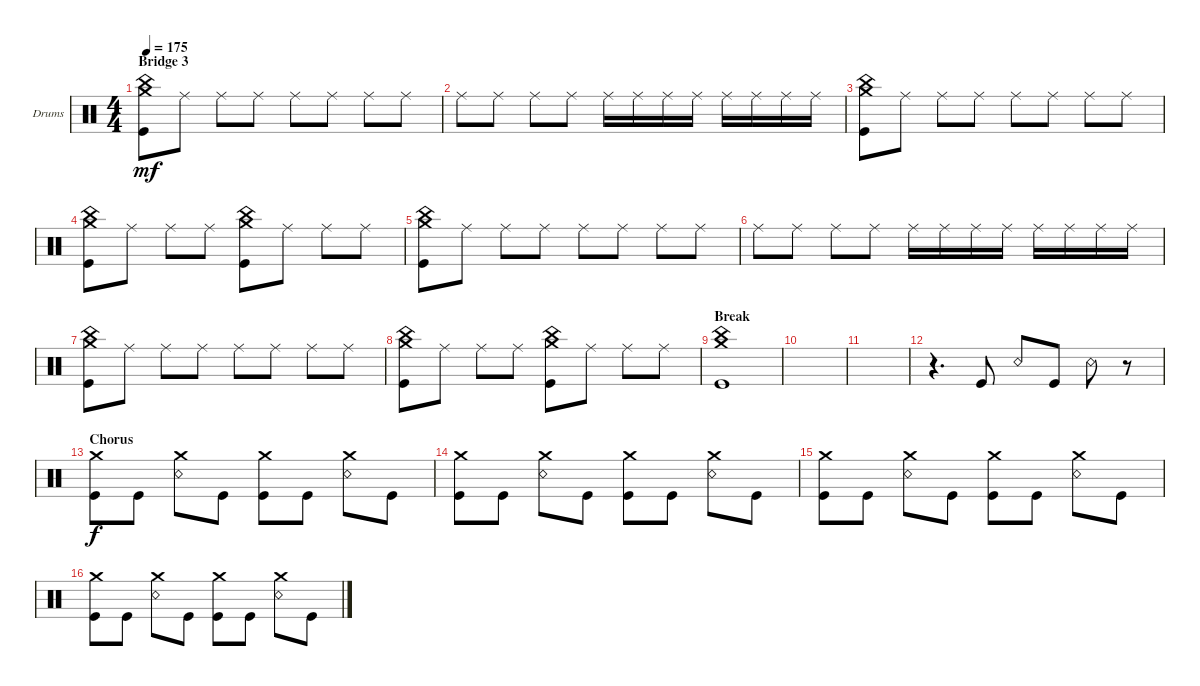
\bracketExtendMode groupsimilarinstruments
\firstSystemTrackNameOrientation horizontal
\otherSystemsTrackNameOrientation horizontal
\track ("Kanky Lora" "Drums") {instrument percussion}
\staff {score}
\articulation defaults
\ts (4 4)
\section ("" "Bridge 3")
\tempo 175
\clef neutral
\ks c
("Kick (hit)" "China (hit)" "Crash medium (hit)").8{dy mf} "Ride (middle)".8 "Ride (middle)".8 "Ride (middle)".8 "Ride (middle)".8 "Ride (middle)".8 "Ride (middle)".8 "Ride (middle)".8 |
"Ride (middle)".8 "Ride (middle)".8 "Ride (middle)".8 "Ride (middle)".8 "Ride (middle)".16 "Ride (middle)".16 "Ride (middle)".16 "Ride (middle)".16 "Ride (middle)".16 "Ride (middle)".16 "Ride (middle)".16 "Ride (middle)".16 |
("Kick (hit)" "China (hit)" "Crash medium (hit)").8 "Ride (middle)".8 "Ride (middle)".8 "Ride (middle)".8 "Ride (middle)".8 "Ride (middle)".8 "Ride (middle)".8 "Ride (middle)".8 |
("Kick (hit)" "China (hit)" "Crash medium (hit)").8 "Ride (middle)".8 "Ride (middle)".8 "Ride (middle)".8 ("Kick (hit)" "Crash medium (hit)" "China (hit)").8 "Ride (middle)".8 "Ride (middle)".8 "Ride (middle)".8 |
("Kick (hit)" "China (hit)" "Crash medium (hit)").8 "Ride (middle)".8 "Ride (middle)".8 "Ride (middle)".8 "Ride (middle)".8 "Ride (middle)".8 "Ride (middle)".8 "Ride (middle)".8 |
"Ride (middle)".8 "Ride (middle)".8 "Ride (middle)".8 "Ride (middle)".8 "Ride (middle)".16 "Ride (middle)".16 "Ride (middle)".16 "Ride (middle)".16 "Ride (middle)".16 "Ride (middle)".16 "Ride (middle)".16 "Ride (middle)".16 |
("Kick (hit)" "China (hit)" "Crash medium (hit)").8 "Ride (middle)".8 "Ride (middle)".8 "Ride (middle)".8 "Ride (middle)".8 "Ride (middle)".8 "Ride (middle)".8 "Ride (middle)".8 |
("Kick (hit)" "China (hit)" "Crash medium (hit)").8 "Ride (middle)".8 "Ride (middle)".8 "Ride (middle)".8 ("Kick (hit)" "Crash medium (hit)" "China (hit)").8 "Ride (middle)".8 "Ride (middle)".8 "Ride (middle)".8 |
\section ("" "Break")
("Kick (hit)" "China (hit)" "Crash medium (hit)").1 |
|
|
r.4{d} "Kick (hit)".8 "Snare (rim shot)".8 "Kick (hit)".8 "Snare (rim shot)".8 r.8 |
\section ("" "Chorus")
("Kick (hit)" "Crash medium (hit)").8{dy f} "Kick (hit)".8 ("Snare (rim shot)" "Crash medium (hit)").8 "Kick (hit)".8 ("Kick (hit)" "Crash medium (hit)").8 "Kick (hit)".8 ("Snare (rim shot)" "Crash medium (hit)").8 "Kick (hit)".8 |
("Kick (hit)" "Crash medium (hit)").8 "Kick (hit)".8 ("Snare (rim shot)" "Crash medium (hit)").8 "Kick (hit)".8 ("Kick (hit)" "Crash medium (hit)").8 "Kick (hit)".8 ("Snare (rim shot)" "Crash medium (hit)").8 "Kick (hit)".8 |
("Kick (hit)" "Crash medium (hit)").8 "Kick (hit)".8 ("Snare (rim shot)" "Crash medium (hit)").8 "Kick (hit)".8 ("Kick (hit)" "Crash medium (hit)").8 "Kick (hit)".8 ("Snare (rim shot)" "Crash medium (hit)").8 "Kick (hit)".8 |
("Kick (hit)" "Crash medium (hit)").8 "Kick (hit)".8 ("Snare (rim shot)" "Crash medium (hit)").8 "Kick (hit)".8 ("Kick (hit)" "Crash medium (hit)").8 "Kick (hit)".8 ("Snare (rim shot)" "Crash medium (hit)").8 "Kick (hit)".8
